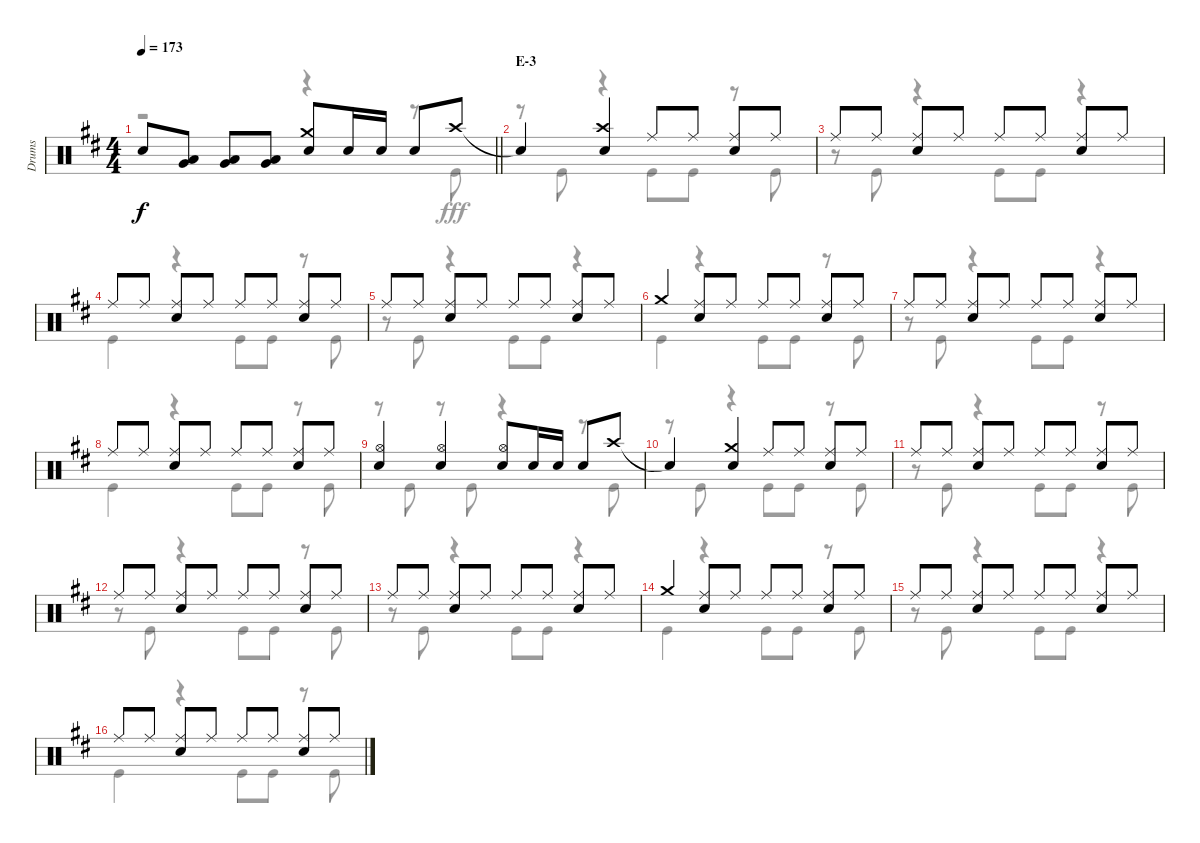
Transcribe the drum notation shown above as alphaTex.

\track ("Drums" "Drums") {instrument percussion}
\staff {score}
\articulation defaults
\voice
\ts (4 4)
\tempo 173
\clef neutral
\barLineRight lightlight
\ks d "Snare (hit)"{t}.8{dy f}
("Low Tom (hit)" "Very Low Tom (hit)").8 ("Low Tom (hit)" "Very Low Tom (hit)").8 ("Low Tom (hit)" "Very Low Tom (hit)").8 ("Crash medium (hit)" "Snare (hit) 2").8 "Snare (hit) 2".16 "Snare (hit) 2".16 "Snare (hit) 2".8 "Crash high (hit)".8 |
\section ("" "E-3")
"Snare (hit)"{t}.4 ("Crash high (hit)" "Snare (hit) 2").4 "Ride (middle)".8 "Ride (middle)".8 ("Ride (middle)" "Snare (hit) 2").8 "Ride (middle)".8 |
"Ride (middle)".8 "Ride (middle)".8 ("Ride (middle)" "Snare (hit) 2").8 "Ride (middle)".8 "Ride (middle)".8 "Ride (middle)".8 ("Ride (middle)" "Snare (hit) 2").8 "Ride (middle)".8 |
"Ride (middle)".8 "Ride (middle)".8 ("Ride (middle)" "Snare (hit) 2").8 "Ride (middle)".8 "Ride (middle)".8 "Ride (middle)".8 ("Ride (middle)" "Snare (hit) 2").8 "Ride (middle)".8 |
"Ride (middle)".8 "Ride (middle)".8 ("Ride (middle)" "Snare (hit) 2").8 "Ride (middle)".8 "Ride (middle)".8 "Ride (middle)".8 ("Ride (middle)" "Snare (hit) 2").8 "Ride (middle)".8 |
"Crash medium (hit)".4 ("Ride (middle)" "Snare (hit) 2").8 "Ride (middle)".8 "Ride (middle)".8 "Ride (middle)".8 ("Ride (middle)" "Snare (hit) 2").8 "Ride (middle)".8 |
"Ride (middle)".8 "Ride (middle)".8 ("Ride (middle)" "Snare (hit) 2").8 "Ride (middle)".8 "Ride (middle)".8 "Ride (middle)".8 ("Ride (middle)" "Snare (hit) 2").8 "Ride (middle)".8 |
"Ride (middle)".8 "Ride (middle)".8 ("Ride (middle)" "Snare (hit) 2").8 "Ride (middle)".8 "Ride (middle)".8 "Ride (middle)".8 ("Ride (middle)" "Snare (hit) 2").8 "Ride (middle)".8 |
("Hi-Hat (open)" "Snare (hit) 2").4 ("Hi-Hat (open)" "Snare (hit) 2").4 ("Hi-Hat (open)" "Snare (hit) 2").8 "Snare (hit) 2".16 "Snare (hit) 2".16 "Snare (hit) 2".8 "Crash high (hit)".8 |
"Snare (hit)"{t}.4 ("Crash medium (hit)" "Snare (hit) 2").4 "Ride (middle)".8 "Ride (middle)".8 ("Ride (middle)" "Snare (hit) 2").8 "Ride (middle)".8 |
"Ride (middle)".8 "Ride (middle)".8 ("Ride (middle)" "Snare (hit) 2").8 "Ride (middle)".8 "Ride (middle)".8 "Ride (middle)".8 ("Ride (middle)" "Snare (hit) 2").8 "Ride (middle)".8 |
"Ride (middle)".8 "Ride (middle)".8 ("Ride (middle)" "Snare (hit) 2").8 "Ride (middle)".8 "Ride (middle)".8 "Ride (middle)".8 ("Ride (middle)" "Snare (hit) 2").8 "Ride (middle)".8 |
"Ride (middle)".8 "Ride (middle)".8 ("Ride (middle)" "Snare (hit) 2").8 "Ride (middle)".8 "Ride (middle)".8 "Ride (middle)".8 ("Ride (middle)" "Snare (hit) 2").8 "Ride (middle)".8 |
"Crash medium (hit)".4 ("Ride (middle)" "Snare (hit) 2").8 "Ride (middle)".8 "Ride (middle)".8 "Ride (middle)".8 ("Ride (middle)" "Snare (hit) 2").8 "Ride (middle)".8 |
"Ride (middle)".8 "Ride (middle)".8 ("Ride (middle)" "Snare (hit) 2").8 "Ride (middle)".8 "Ride (middle)".8 "Ride (middle)".8 ("Ride (middle)" "Snare (hit) 2").8 "Ride (middle)".8 |
"Ride (middle)".8 "Ride (middle)".8 ("Ride (middle)" "Snare (hit) 2").8 "Ride (middle)".8 "Ride (middle)".8 "Ride (middle)".8 ("Ride (middle)" "Snare (hit) 2").8 "Ride (middle)".8
\voice
\clef neutral
\ottava regular
\simile none
\barLineRight lightlight
\ks d
r.2{dy fff} r.4 r.8 "Kick (hit)".8 |
r.8 "Kick (hit)".8 r.4 "Kick (hit)".8 "Kick (hit)".8 r.8 "Kick (hit)".8 |
r.8 "Kick (hit)".8 r.4 "Kick (hit)".8 "Kick (hit)".8 r.4 |
"Kick (hit)".4 r.4 "Kick (hit)".8 "Kick (hit)".8 r.8 "Kick (hit)".8 |
r.8 "Kick (hit)".8 r.4 "Kick (hit)".8 "Kick (hit)".8 r.4 |
"Kick (hit)".4 r.4 "Kick (hit)".8 "Kick (hit)".8 r.8 "Kick (hit)".8 |
r.8 "Kick (hit)".8 r.4 "Kick (hit)".8 "Kick (hit)".8 r.4 |
"Kick (hit)".4 r.4 "Kick (hit)".8 "Kick (hit)".8 r.8 "Kick (hit)".8 |
r.8 "Kick (hit)".8 r.8 "Kick (hit)".8 r.4 r.8 "Kick (hit)".8 |
r.8 "Kick (hit)".8 r.4 "Kick (hit)".8 "Kick (hit)".8 r.8 "Kick (hit)".8 |
r.8 "Kick (hit)".8 r.4 "Kick (hit)".8 "Kick (hit)".8 r.8 "Kick (hit)".8 |
r.8 "Kick (hit)".8 r.4 "Kick (hit)".8 "Kick (hit)".8 r.8 "Kick (hit)".8 |
r.8 "Kick (hit)".8 r.4 "Kick (hit)".8 "Kick (hit)".8 r.4 |
"Kick (hit)".4 r.4 "Kick (hit)".8 "Kick (hit)".8 r.8 "Kick (hit)".8 |
r.8 "Kick (hit)".8 r.4 "Kick (hit)".8 "Kick (hit)".8 r.4 |
"Kick (hit)".4 r.4 "Kick (hit)".8 "Kick (hit)".8 r.8 "Kick (hit)".8
